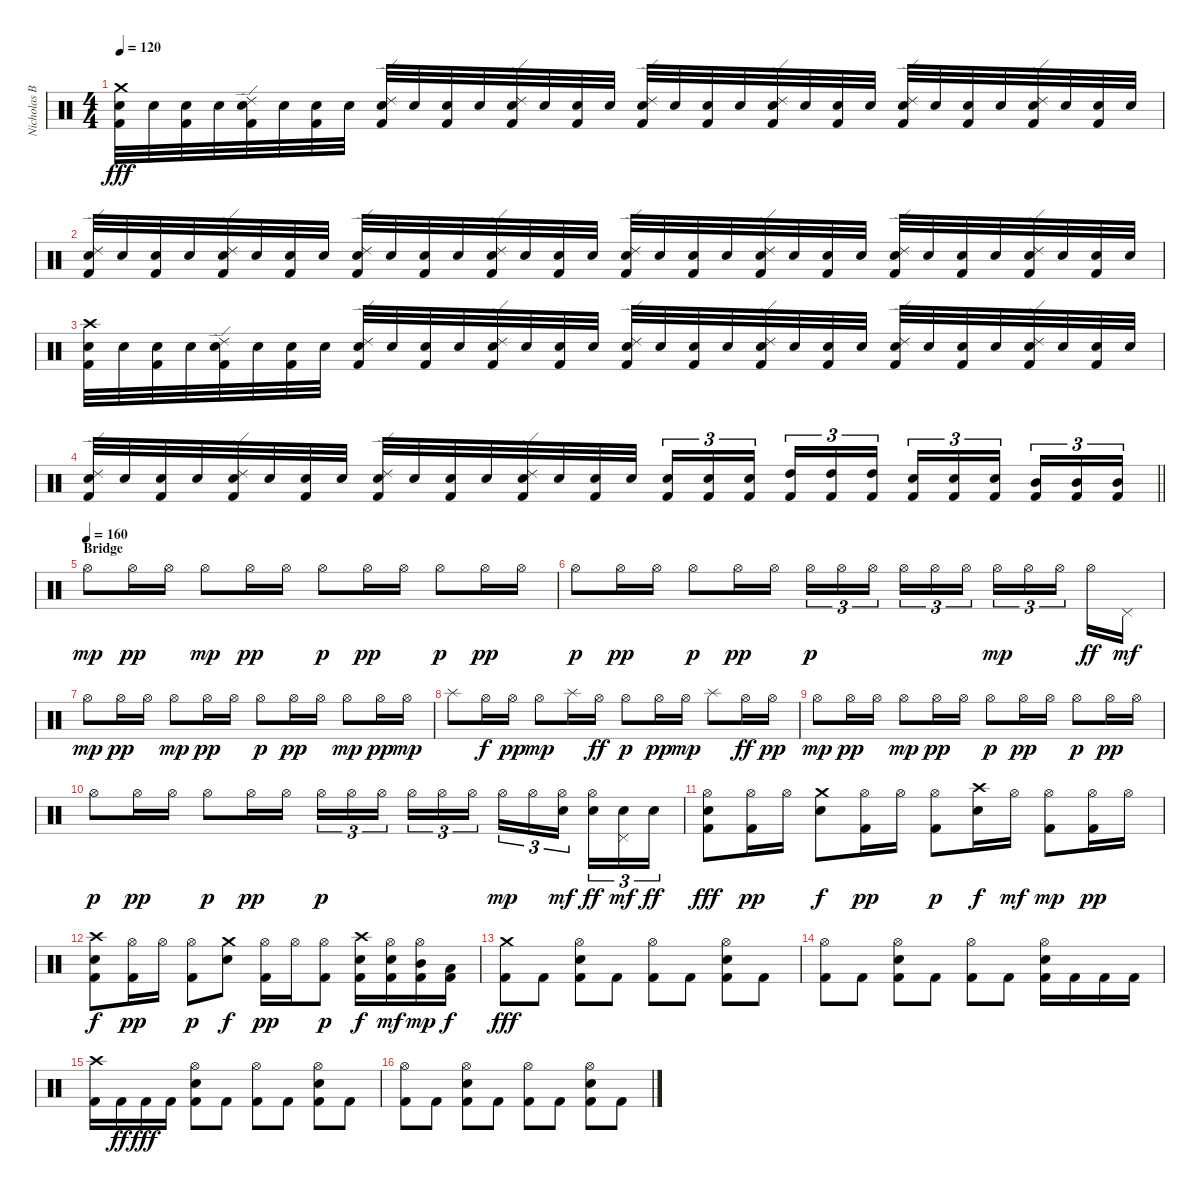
\track ("Nicholas Barker" "Nicholas B") {instrument percussion}
\staff {score}
\articulation defaults
\ts (4 4)
\tempo 120
\clef neutral
\ks c
("Crash medium (hit)" "Snare (hit) 2" "Kick (hit) 2").32{dy fff} "Snare (hit) 2".32 ("Snare (hit) 2" "Kick (hit) 2").32 "Snare (hit) 2".32 ("Ride (edge) 2" "Snare (hit) 2" "Kick (hit) 2").32 "Snare (hit) 2".32 ("Snare (hit) 2" "Kick (hit) 2").32 "Snare (hit) 2".32 ("Ride (edge) 2" "Snare (hit) 2" "Kick (hit) 2").32 "Snare (hit) 2".32 ("Snare (hit) 2" "Kick (hit) 2").32 "Snare (hit) 2".32 ("Ride (edge) 2" "Snare (hit) 2" "Kick (hit) 2").32 "Snare (hit) 2".32 ("Snare (hit) 2" "Kick (hit) 2").32 "Snare (hit) 2".32 ("Ride (edge) 2" "Snare (hit) 2" "Kick (hit) 2").32 "Snare (hit) 2".32 ("Snare (hit) 2" "Kick (hit) 2").32 "Snare (hit) 2".32 ("Ride (edge) 2" "Snare (hit) 2" "Kick (hit) 2").32 "Snare (hit) 2".32 ("Snare (hit) 2" "Kick (hit) 2").32 "Snare (hit) 2".32 ("Ride (edge) 2" "Snare (hit) 2" "Kick (hit) 2").32 "Snare (hit) 2".32 ("Snare (hit) 2" "Kick (hit) 2").32 "Snare (hit) 2".32 ("Ride (edge) 2" "Snare (hit) 2" "Kick (hit) 2").32 "Snare (hit) 2".32 ("Snare (hit) 2" "Kick (hit) 2").32 "Snare (hit) 2".32 |
("Ride (edge) 2" "Snare (hit) 2" "Kick (hit) 2").32 "Snare (hit) 2".32 ("Snare (hit) 2" "Kick (hit) 2").32 "Snare (hit) 2".32 ("Ride (edge) 2" "Snare (hit) 2" "Kick (hit) 2").32 "Snare (hit) 2".32 ("Snare (hit) 2" "Kick (hit) 2").32 "Snare (hit) 2".32 ("Ride (edge) 2" "Snare (hit) 2" "Kick (hit) 2").32 "Snare (hit) 2".32 ("Snare (hit) 2" "Kick (hit) 2").32 "Snare (hit) 2".32 ("Ride (edge) 2" "Snare (hit) 2" "Kick (hit) 2").32 "Snare (hit) 2".32 ("Snare (hit) 2" "Kick (hit) 2").32 "Snare (hit) 2".32 ("Ride (edge) 2" "Snare (hit) 2" "Kick (hit) 2").32 "Snare (hit) 2".32 ("Snare (hit) 2" "Kick (hit) 2").32 "Snare (hit) 2".32 ("Ride (edge) 2" "Snare (hit) 2" "Kick (hit) 2").32 "Snare (hit) 2".32 ("Snare (hit) 2" "Kick (hit) 2").32 "Snare (hit) 2".32 ("Ride (edge) 2" "Snare (hit) 2" "Kick (hit) 2").32 "Snare (hit) 2".32 ("Snare (hit) 2" "Kick (hit) 2").32 "Snare (hit) 2".32 ("Ride (edge) 2" "Snare (hit) 2" "Kick (hit) 2").32 "Snare (hit) 2".32 ("Snare (hit) 2" "Kick (hit) 2").32 "Snare (hit) 2".32 |
("Crash high (hit)" "Snare (hit) 2" "Kick (hit) 2").32 "Snare (hit) 2".32 ("Snare (hit) 2" "Kick (hit) 2").32 "Snare (hit) 2".32 ("Ride (edge) 2" "Snare (hit) 2" "Kick (hit) 2").32 "Snare (hit) 2".32 ("Snare (hit) 2" "Kick (hit) 2").32 "Snare (hit) 2".32 ("Ride (edge) 2" "Snare (hit) 2" "Kick (hit) 2").32 "Snare (hit) 2".32 ("Snare (hit) 2" "Kick (hit) 2").32 "Snare (hit) 2".32 ("Ride (edge) 2" "Snare (hit) 2" "Kick (hit) 2").32 "Snare (hit) 2".32 ("Snare (hit) 2" "Kick (hit) 2").32 "Snare (hit) 2".32 ("Ride (edge) 2" "Snare (hit) 2" "Kick (hit) 2").32 "Snare (hit) 2".32 ("Snare (hit) 2" "Kick (hit) 2").32 "Snare (hit) 2".32 ("Ride (edge) 2" "Snare (hit) 2" "Kick (hit) 2").32 "Snare (hit) 2".32 ("Snare (hit) 2" "Kick (hit) 2").32 "Snare (hit) 2".32 ("Ride (edge) 2" "Snare (hit) 2" "Kick (hit) 2").32 "Snare (hit) 2".32 ("Snare (hit) 2" "Kick (hit) 2").32 "Snare (hit) 2".32 ("Ride (edge) 2" "Snare (hit) 2" "Kick (hit) 2").32 "Snare (hit) 2".32 ("Snare (hit) 2" "Kick (hit) 2").32 "Snare (hit) 2".32 |
\barLineRight lightlight
("Ride (edge) 2" "Snare (hit) 2" "Kick (hit) 2").32 "Snare (hit) 2".32 ("Snare (hit) 2" "Kick (hit) 2").32 "Snare (hit) 2".32 ("Ride (edge) 2" "Snare (hit) 2" "Kick (hit) 2").32 "Snare (hit) 2".32 ("Snare (hit) 2" "Kick (hit) 2").32 "Snare (hit) 2".32 ("Ride (edge) 2" "Snare (hit) 2" "Kick (hit) 2").32 "Snare (hit) 2".32 ("Snare (hit) 2" "Kick (hit) 2").32 "Snare (hit) 2".32 ("Ride (edge) 2" "Snare (hit) 2" "Kick (hit) 2").32 "Snare (hit) 2".32 ("Snare (hit) 2" "Kick (hit) 2").32 "Snare (hit) 2".32 ("Snare (hit) 2" "Kick (hit) 2").16{tu (3 2)} ("Snare (hit) 2" "Kick (hit) 2").16{tu (3 2)} ("Snare (hit) 2" "Kick (hit) 2").16{tu (3 2) beam splitsecondary} ("High Tom (hit)" "Kick (hit) 2").16{tu (3 2)} ("High Tom (hit)" "Kick (hit) 2").16{tu (3 2)} ("High Tom (hit)" "Kick (hit) 2").16{tu (3 2)} ("Snare (hit) 2" "Kick (hit) 2").16{tu (3 2)} ("Snare (hit) 2" "Kick (hit) 2").16{tu (3 2)} ("Snare (hit) 2" "Kick (hit) 2").16{tu (3 2) beam splitsecondary} ("Mid Tom (hit)" "Kick (hit) 2").16{tu (3 2)} ("Mid Tom (hit)" "Kick (hit) 2").16{tu (3 2)} ("Mid Tom (hit)" "Kick (hit) 2").16{tu (3 2)} |
\section ("" "Bridge")
\tempo (160)
"Hi-Hat (open)".8{dy mp} "Hi-Hat (open)".16{dy pp} "Hi-Hat (open)".16 "Hi-Hat (open)".8{dy mp} "Hi-Hat (open)".16{dy pp} "Hi-Hat (open)".16 "Hi-Hat (open)".8{dy p} "Hi-Hat (open)".16{dy pp} "Hi-Hat (open)".16 "Hi-Hat (open)".8{dy p} "Hi-Hat (open)".16{dy pp} "Hi-Hat (open)".16 |
"Hi-Hat (open)".8{dy p} "Hi-Hat (open)".16{dy pp} "Hi-Hat (open)".16 "Hi-Hat (open)".8{dy p} "Hi-Hat (open)".16{dy pp} "Hi-Hat (open)".16 "Hi-Hat (open)".16{tu (3 2) dy p} "Hi-Hat (open)".16{tu (3 2)} "Hi-Hat (open)".16{tu (3 2) beam splitsecondary} "Hi-Hat (open)".16{tu (3 2)} "Hi-Hat (open)".16{tu (3 2)} "Hi-Hat (open)".16{tu (3 2)} "Hi-Hat (open)".16{tu (3 2) dy mp} "Hi-Hat (open)".16{tu (3 2)} "Hi-Hat (open)".16{tu (3 2) beam splitsecondary} "Hi-Hat (open)".16{dy ff} "Pedal Hi-Hat (hit)".16{dy mf} |
"Hi-Hat (open)".8{dy mp} "Hi-Hat (open)".16{dy pp} "Hi-Hat (open)".16 "Hi-Hat (open)".8{dy mp} "Hi-Hat (open)".16{dy pp} "Hi-Hat (open)".16 "Hi-Hat (open)".8{dy p} "Hi-Hat (open)".16{dy pp} "Hi-Hat (open)".16 "Hi-Hat (open)".8{dy mp} "Hi-Hat (open)".16{dy pp} "Hi-Hat (open)".16{dy mp} |
"Splash (hit)".8 "Hi-Hat (open)".16{dy f} "Hi-Hat (open)".16{dy pp} "Hi-Hat (open)".8{dy mp} "Splash (hit)".16 "Hi-Hat (open)".16{dy ff} "Hi-Hat (open)".8{dy p} "Hi-Hat (open)".16{dy pp} "Hi-Hat (open)".16{dy mp} "Splash (hit)".8 "Hi-Hat (open)".16{dy ff} "Hi-Hat (open)".16{dy pp} |
"Hi-Hat (open)".8{dy mp} "Hi-Hat (open)".16{dy pp} "Hi-Hat (open)".16 "Hi-Hat (open)".8{dy mp} "Hi-Hat (open)".16{dy pp} "Hi-Hat (open)".16 "Hi-Hat (open)".8{dy p} "Hi-Hat (open)".16{dy pp} "Hi-Hat (open)".16 "Hi-Hat (open)".8{dy p} "Hi-Hat (open)".16{dy pp} "Hi-Hat (open)".16 |
"Hi-Hat (open)".8{dy p} "Hi-Hat (open)".16{dy pp} "Hi-Hat (open)".16 "Hi-Hat (open)".8{dy p} "Hi-Hat (open)".16{dy pp} "Hi-Hat (open)".16 "Hi-Hat (open)".16{tu (3 2) dy p} "Hi-Hat (open)".16{tu (3 2)} "Hi-Hat (open)".16{tu (3 2) beam splitsecondary} "Hi-Hat (open)".16{tu (3 2)} "Hi-Hat (open)".16{tu (3 2)} "Hi-Hat (open)".16{tu (3 2)} "Hi-Hat (open)".16{tu (3 2) dy mp} "Hi-Hat (open)".16{tu (3 2)} ("Hi-Hat (open)" "Snare (hit) 2").16{tu (3 2) dy mf beam splitsecondary} ("Hi-Hat (open)" "Snare (hit) 2").16{tu (3 2) dy ff} ("Pedal Hi-Hat (hit)" "Snare (hit) 2").16{tu (3 2) dy mf} "Snare (hit) 2".16{tu (3 2) dy ff} |
("Hi-Hat (open)" "Snare (hit) 2" "Kick (hit) 2").8{dy fff} ("Hi-Hat (open)" "Kick (hit) 2").16{dy pp} "Hi-Hat (open)".16 ("Crash medium (hit)" "Snare (hit) 2").8{dy f} ("Hi-Hat (open)" "Kick (hit) 2").16{dy pp} "Hi-Hat (open)".16 ("Hi-Hat (open)" "Kick (hit) 2").8{dy p} ("Crash high (hit)" "Snare (hit) 2").16{dy f} "Hi-Hat (open)".16{dy mf} ("Hi-Hat (open)" "Kick (hit) 2").8{dy mp} ("Hi-Hat (open)" "Kick (hit) 2").16{dy pp} "Hi-Hat (open)".16 |
("Crash high (hit)" "Snare (hit) 2" "Kick (hit) 2").8{dy f} ("Hi-Hat (open)" "Kick (hit) 2").16{dy pp} "Hi-Hat (open)".16 ("Hi-Hat (open)" "Kick (hit) 2").8{dy p} ("Crash medium (hit)" "Snare (hit) 2").8{dy f} ("Hi-Hat (open)" "Kick (hit) 2").16{dy pp} "Hi-Hat (open)".16 ("Hi-Hat (open)" "Kick (hit) 2").8{dy p} ("Crash high (hit)" "Snare (hit) 2" "Kick (hit) 2").16{dy f} ("Hi-Hat (open)" "Snare (hit) 2" "Kick (hit) 2").16{dy mf} ("Hi-Hat (open)" "Mid Tom (hit)" "Kick (hit) 2").16{dy mp} ("Low Tom (hit)" "Kick (hit) 2").16{dy f} |
("Crash medium (hit)" "Kick (hit) 2").8{dy fff} "Kick (hit) 2".8 ("Hi-Hat (open)" "Snare (hit) 2" "Kick (hit) 2").8 "Kick (hit) 2".8 ("Hi-Hat (open)" "Kick (hit) 2").8 "Kick (hit) 2".8 ("Hi-Hat (open)" "Snare (hit) 2" "Kick (hit) 2").8 "Kick (hit) 2".8 |
("Hi-Hat (open)" "Kick (hit) 2").8 "Kick (hit) 2".8 ("Hi-Hat (open)" "Snare (hit) 2" "Kick (hit) 2").8 "Kick (hit) 2".8 ("Hi-Hat (open)" "Kick (hit) 2").8 "Kick (hit) 2".8 ("Hi-Hat (open)" "Snare (hit) 2" "Kick (hit) 2").16 "Kick (hit) 2".16 "Kick (hit) 2".16 "Kick (hit) 2".16 |
("Crash high (hit)" "Kick (hit) 2").16 "Kick (hit) 2".16{dy ff} "Kick (hit) 2".16{dy fff} "Kick (hit) 2".16 ("Hi-Hat (open)" "Snare (hit) 2" "Kick (hit) 2").8 "Kick (hit) 2".8 ("Hi-Hat (open)" "Kick (hit) 2").8 "Kick (hit) 2".8 ("Hi-Hat (open)" "Snare (hit) 2" "Kick (hit) 2").8 "Kick (hit) 2".8 |
("Hi-Hat (open)" "Kick (hit) 2").8 "Kick (hit) 2".8 ("Hi-Hat (open)" "Snare (hit) 2" "Kick (hit) 2").8 "Kick (hit) 2".8 ("Hi-Hat (open)" "Kick (hit) 2").8 "Kick (hit) 2".8 ("Hi-Hat (open)" "Snare (hit) 2" "Kick (hit) 2").8 "Kick (hit) 2".8
